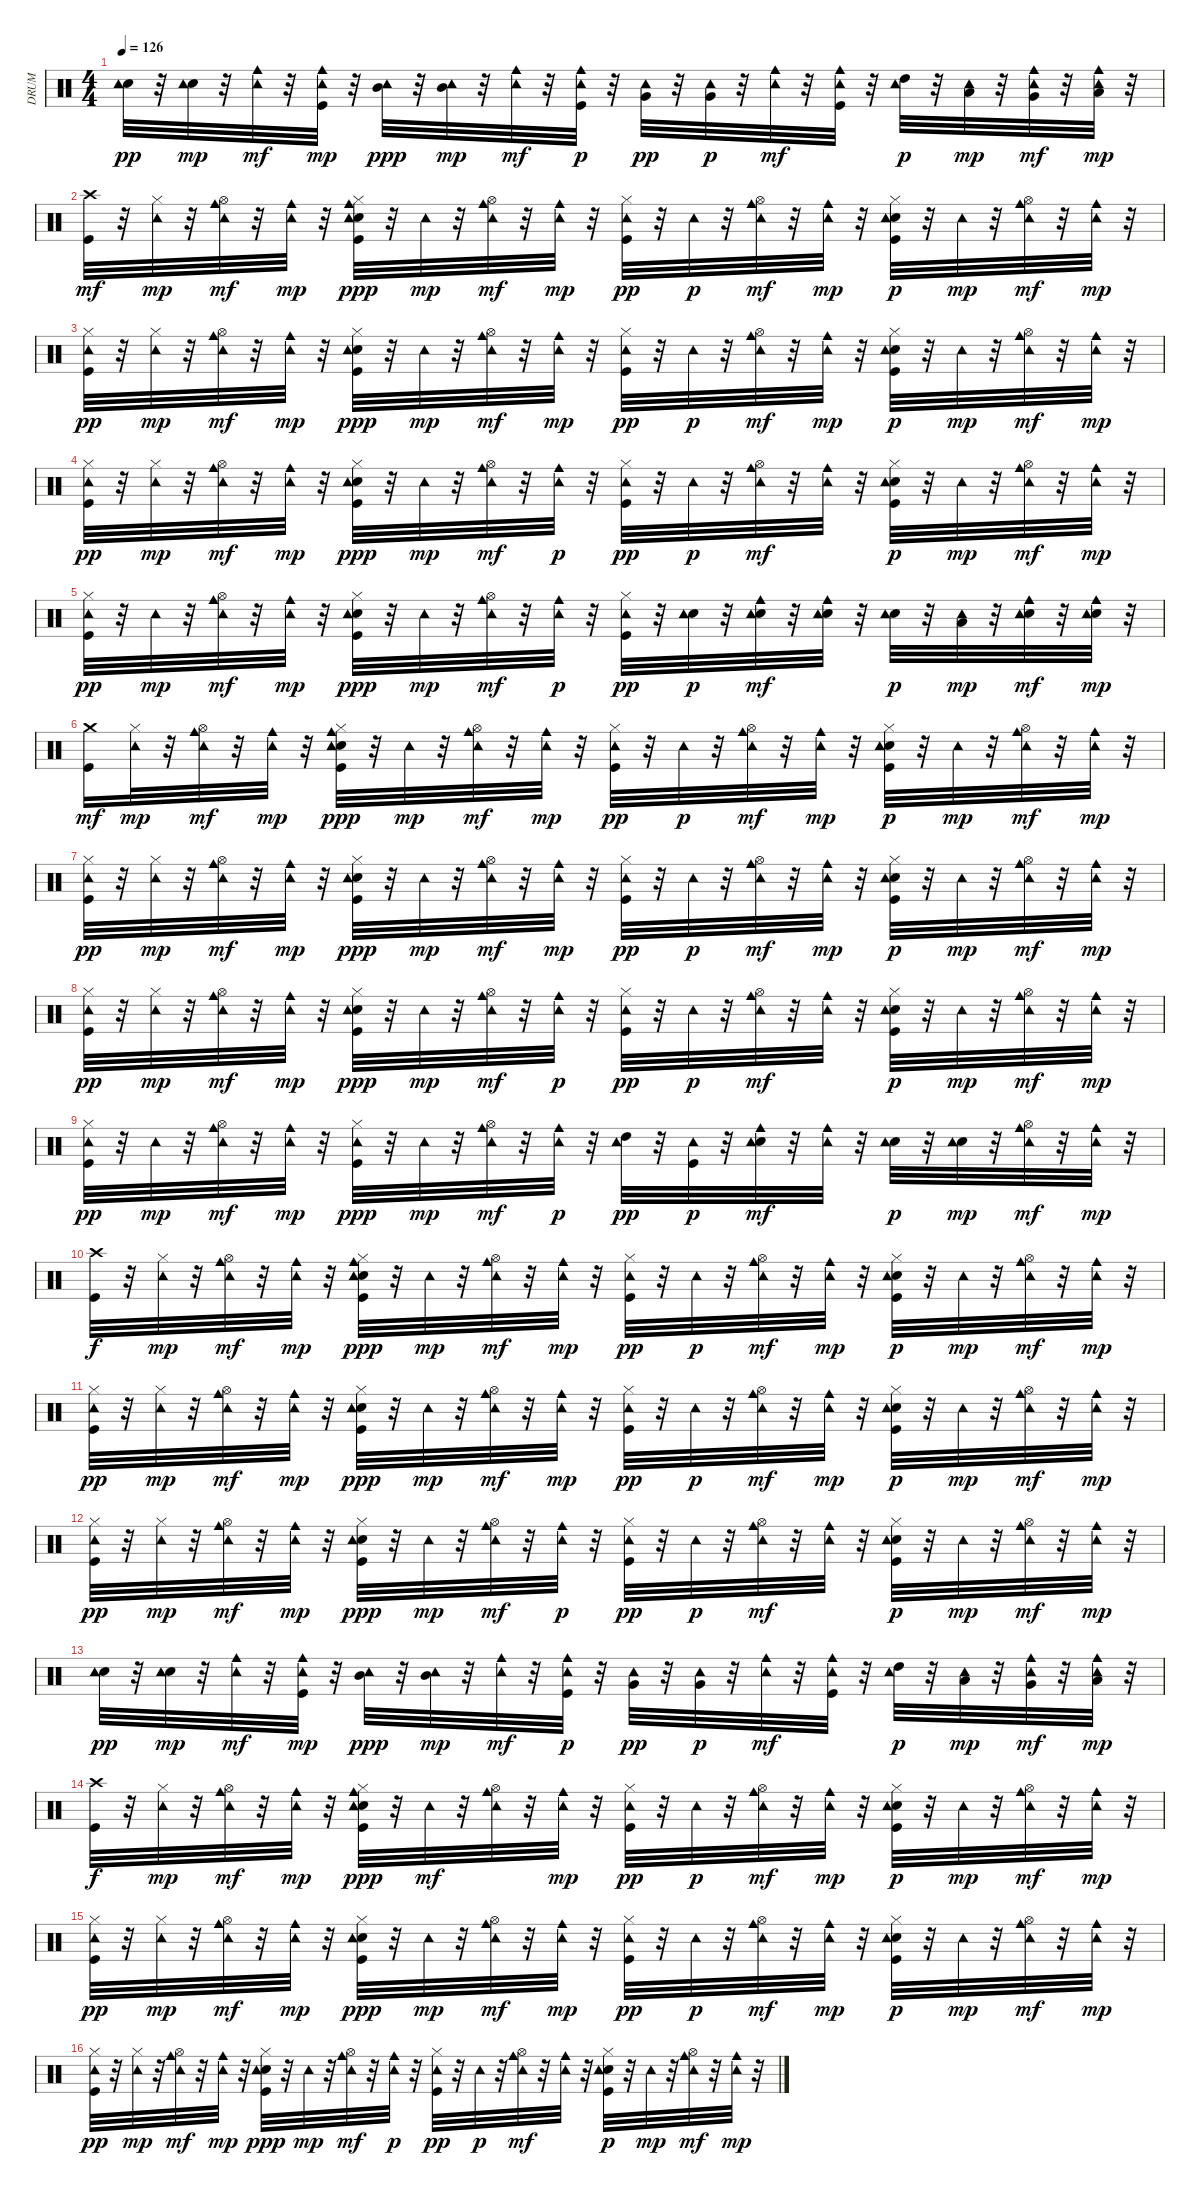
\track ("DRUM" "DRUM") {instrument percussion}
\staff {score}
\articulation defaults
\ts (4 4)
\tempo 126
\clef neutral
\ks c
("Electric Snare (hit)" "Tambourine (hit)").32{dy pp} r.32 ("Electric Snare (hit)" "Tambourine (hit)").32{dy mp} r.32 ("Tambourine (hit)" "Cowbell medium (hit)").32{dy mf} r.32 ("Kick (hit)" "Tambourine (hit)" "Cowbell medium (hit)").32{dy mp} r.32 ("Mid Tom (hit)" "Tambourine (hit)").32{dy ppp} r.32 ("Mid Tom (hit)" "Tambourine (hit)").32{dy mp} r.32 ("Tambourine (hit)" "Cowbell medium (hit)").32{dy mf} r.32 ("Kick (hit)" "Tambourine (hit)" "Cowbell medium (hit)").32{dy p} r.32 ("Very Low Tom (hit)" "Tambourine (hit)").32{dy pp} r.32 ("Very Low Tom (hit)" "Tambourine (hit)").32{dy p} r.32 ("Tambourine (hit)" "Cowbell medium (hit)").32{dy mf} r.32 ("Kick (hit)" "Tambourine (hit)" "Cowbell medium (hit)").32 r.32 ("High Tom (hit)" "Tambourine (hit)").32{dy p} r.32 ("Low Tom (hit)" "Tambourine (hit)").32{dy mp} r.32 ("Very Low Tom (hit)" "Tambourine (hit)" "Cowbell medium (hit)").32{dy mf} r.32 ("Low Floor Tom (hit)" "Tambourine (hit)" "Cowbell medium (hit)").32{dy mp} r.32 |
("Kick (hit)" "Crash high (hit)").32{dy mf} r.32 ("Hi-Hat (closed)" "Tambourine (hit)").32{dy mp} r.32 ("Hi-Hat (open)" "Tambourine (hit)" "Cowbell medium (hit)").32{dy mf} r.32 ("Tambourine (hit)" "Cowbell medium (hit)").32{dy mp} r.32 ("Kick (hit)" "Electric Snare (hit)" "Hi-Hat (closed)" "Tambourine (hit)" "Cowbell medium (hit)").32{dy ppp} r.32 "Tambourine (hit)".32{dy mp} r.32 ("Hi-Hat (open)" "Tambourine (hit)" "Cowbell medium (hit)").32{dy mf} r.32 ("Tambourine (hit)" "Cowbell medium (hit)").32{dy mp} r.32 ("Kick (hit)" "Hi-Hat (closed)" "Tambourine (hit)").32{dy pp} r.32 "Tambourine (hit)".32{dy p} r.32 ("Hi-Hat (open)" "Tambourine (hit)" "Cowbell medium (hit)").32{dy mf} r.32 ("Tambourine (hit)" "Cowbell medium (hit)").32{dy mp} r.32 ("Kick (hit)" "Electric Snare (hit)" "Hi-Hat (closed)" "Tambourine (hit)").32{dy p} r.32 "Tambourine (hit)".32{dy mp} r.32 ("Hi-Hat (open)" "Tambourine (hit)" "Cowbell medium (hit)").32{dy mf} r.32 ("Tambourine (hit)" "Cowbell medium (hit)").32{dy mp} r.32 |
("Kick (hit)" "Hi-Hat (closed)" "Tambourine (hit)").32{dy pp} r.32 ("Hi-Hat (closed)" "Tambourine (hit)").32{dy mp} r.32 ("Hi-Hat (open)" "Tambourine (hit)" "Cowbell medium (hit)").32{dy mf} r.32 ("Tambourine (hit)" "Cowbell medium (hit)").32{dy mp} r.32 ("Kick (hit)" "Electric Snare (hit)" "Hi-Hat (closed)" "Tambourine (hit)").32{dy ppp} r.32 "Tambourine (hit)".32{dy mp} r.32 ("Hi-Hat (open)" "Tambourine (hit)" "Cowbell medium (hit)").32{dy mf} r.32 ("Tambourine (hit)" "Cowbell medium (hit)").32{dy mp} r.32 ("Kick (hit)" "Hi-Hat (closed)" "Tambourine (hit)").32{dy pp} r.32 "Tambourine (hit)".32{dy p} r.32 ("Hi-Hat (open)" "Tambourine (hit)" "Cowbell medium (hit)").32{dy mf} r.32 ("Tambourine (hit)" "Cowbell medium (hit)").32{dy mp} r.32 ("Kick (hit)" "Electric Snare (hit)" "Hi-Hat (closed)" "Tambourine (hit)").32{dy p} r.32 "Tambourine (hit)".32{dy mp} r.32 ("Hi-Hat (open)" "Tambourine (hit)" "Cowbell medium (hit)").32{dy mf} r.32 ("Tambourine (hit)" "Cowbell medium (hit)").32{dy mp} r.32 |
("Kick (hit)" "Hi-Hat (closed)" "Tambourine (hit)").32{dy pp} r.32 ("Hi-Hat (closed)" "Tambourine (hit)").32{dy mp} r.32 ("Hi-Hat (open)" "Tambourine (hit)" "Cowbell medium (hit)").32{dy mf} r.32 ("Tambourine (hit)" "Cowbell medium (hit)").32{dy mp} r.32 ("Kick (hit)" "Electric Snare (hit)" "Hi-Hat (closed)" "Tambourine (hit)").32{dy ppp} r.32 "Tambourine (hit)".32{dy mp} r.32 ("Hi-Hat (open)" "Tambourine (hit)" "Cowbell medium (hit)").32{dy mf} r.32 ("Tambourine (hit)" "Cowbell medium (hit)").32{dy p} r.32 ("Kick (hit)" "Hi-Hat (closed)" "Tambourine (hit)").32{dy pp} r.32 "Tambourine (hit)".32{dy p} r.32 ("Hi-Hat (open)" "Tambourine (hit)" "Cowbell medium (hit)").32{dy mf} r.32 ("Tambourine (hit)" "Cowbell medium (hit)").32 r.32 ("Kick (hit)" "Electric Snare (hit)" "Hi-Hat (closed)" "Tambourine (hit)").32{dy p} r.32 "Tambourine (hit)".32{dy mp} r.32 ("Hi-Hat (open)" "Tambourine (hit)" "Cowbell medium (hit)").32{dy mf} r.32 ("Tambourine (hit)" "Cowbell medium (hit)").32{dy mp} r.32 |
("Kick (hit)" "Hi-Hat (closed)" "Tambourine (hit)").32{dy pp} r.32 "Tambourine (hit)".32{dy mp} r.32 ("Hi-Hat (open)" "Tambourine (hit)" "Cowbell medium (hit)").32{dy mf} r.32 ("Tambourine (hit)" "Cowbell medium (hit)").32{dy mp} r.32 ("Kick (hit)" "Electric Snare (hit)" "Hi-Hat (closed)" "Tambourine (hit)").32{dy ppp} r.32 "Tambourine (hit)".32{dy mp} r.32 ("Hi-Hat (open)" "Tambourine (hit)" "Cowbell medium (hit)").32{dy mf} r.32 ("Tambourine (hit)" "Cowbell medium (hit)").32{dy p} r.32 ("Kick (hit)" "Hi-Hat (closed)" "Tambourine (hit)").32{dy pp} r.32 ("Electric Snare (hit)" "Tambourine (hit)").32{dy p} r.32 ("Electric Snare (hit)" "Tambourine (hit)" "Cowbell medium (hit)").32{dy mf} r.32 ("Electric Snare (hit)" "Tambourine (hit)" "Cowbell medium (hit)").32 r.32 ("Electric Snare (hit)" "Tambourine (hit)").32{dy p} r.32 ("Low Tom (hit)" "Tambourine (hit)").32{dy mp} r.32 ("Electric Snare (hit)" "Tambourine (hit)" "Cowbell medium (hit)").32{dy mf} r.32 ("Electric Snare (hit)" "Tambourine (hit)" "Cowbell medium (hit)").32{dy mp} r.32 |
("Kick (hit)" "Crash medium (hit)").16{dy mf} ("Hi-Hat (closed)" "Tambourine (hit)").32{dy mp} r.32 ("Hi-Hat (open)" "Tambourine (hit)" "Cowbell medium (hit)").32{dy mf} r.32 ("Tambourine (hit)" "Cowbell medium (hit)").32{dy mp} r.32 ("Kick (hit)" "Electric Snare (hit)" "Hi-Hat (closed)" "Tambourine (hit)" "Cowbell medium (hit)").32{dy ppp} r.32 "Tambourine (hit)".32{dy mp} r.32 ("Hi-Hat (open)" "Tambourine (hit)" "Cowbell medium (hit)").32{dy mf} r.32 ("Tambourine (hit)" "Cowbell medium (hit)").32{dy mp} r.32 ("Kick (hit)" "Hi-Hat (closed)" "Tambourine (hit)").32{dy pp} r.32 "Tambourine (hit)".32{dy p} r.32 ("Hi-Hat (open)" "Tambourine (hit)" "Cowbell medium (hit)").32{dy mf} r.32 ("Tambourine (hit)" "Cowbell medium (hit)").32{dy mp} r.32 ("Kick (hit)" "Electric Snare (hit)" "Hi-Hat (closed)" "Tambourine (hit)").32{dy p} r.32 "Tambourine (hit)".32{dy mp} r.32 ("Hi-Hat (open)" "Tambourine (hit)" "Cowbell medium (hit)").32{dy mf} r.32 ("Tambourine (hit)" "Cowbell medium (hit)").32{dy mp} r.32 |
("Kick (hit)" "Hi-Hat (closed)" "Tambourine (hit)").32{dy pp} r.32 ("Hi-Hat (closed)" "Tambourine (hit)").32{dy mp} r.32 ("Hi-Hat (open)" "Tambourine (hit)" "Cowbell medium (hit)").32{dy mf} r.32 ("Tambourine (hit)" "Cowbell medium (hit)").32{dy mp} r.32 ("Kick (hit)" "Electric Snare (hit)" "Hi-Hat (closed)" "Tambourine (hit)").32{dy ppp} r.32 "Tambourine (hit)".32{dy mp} r.32 ("Hi-Hat (open)" "Tambourine (hit)" "Cowbell medium (hit)").32{dy mf} r.32 ("Tambourine (hit)" "Cowbell medium (hit)").32{dy mp} r.32 ("Kick (hit)" "Hi-Hat (closed)" "Tambourine (hit)").32{dy pp} r.32 "Tambourine (hit)".32{dy p} r.32 ("Hi-Hat (open)" "Tambourine (hit)" "Cowbell medium (hit)").32{dy mf} r.32 ("Tambourine (hit)" "Cowbell medium (hit)").32{dy mp} r.32 ("Kick (hit)" "Electric Snare (hit)" "Hi-Hat (closed)" "Tambourine (hit)").32{dy p} r.32 "Tambourine (hit)".32{dy mp} r.32 ("Hi-Hat (open)" "Tambourine (hit)" "Cowbell medium (hit)").32{dy mf} r.32 ("Tambourine (hit)" "Cowbell medium (hit)").32{dy mp} r.32 |
("Kick (hit)" "Hi-Hat (closed)" "Tambourine (hit)").32{dy pp} r.32 ("Hi-Hat (closed)" "Tambourine (hit)").32{dy mp} r.32 ("Hi-Hat (open)" "Tambourine (hit)" "Cowbell medium (hit)").32{dy mf} r.32 ("Tambourine (hit)" "Cowbell medium (hit)").32{dy mp} r.32 ("Kick (hit)" "Electric Snare (hit)" "Hi-Hat (closed)" "Tambourine (hit)").32{dy ppp} r.32 "Tambourine (hit)".32{dy mp} r.32 ("Hi-Hat (open)" "Tambourine (hit)" "Cowbell medium (hit)").32{dy mf} r.32 ("Tambourine (hit)" "Cowbell medium (hit)").32{dy p} r.32 ("Kick (hit)" "Hi-Hat (closed)" "Tambourine (hit)").32{dy pp} r.32 "Tambourine (hit)".32{dy p} r.32 ("Hi-Hat (open)" "Tambourine (hit)" "Cowbell medium (hit)").32{dy mf} r.32 ("Tambourine (hit)" "Cowbell medium (hit)").32 r.32 ("Kick (hit)" "Electric Snare (hit)" "Hi-Hat (closed)" "Tambourine (hit)").32{dy p} r.32 "Tambourine (hit)".32{dy mp} r.32 ("Hi-Hat (open)" "Tambourine (hit)" "Cowbell medium (hit)").32{dy mf} r.32 ("Tambourine (hit)" "Cowbell medium (hit)").32{dy mp} r.32 |
("Kick (hit)" "Hi-Hat (closed)" "Tambourine (hit)").32{dy pp} r.32 "Tambourine (hit)".32{dy mp} r.32 ("Hi-Hat (open)" "Tambourine (hit)" "Cowbell medium (hit)").32{dy mf} r.32 ("Tambourine (hit)" "Cowbell medium (hit)").32{dy mp} r.32 ("Kick (hit)" "Hi-Hat (closed)" "Tambourine (hit)").32{dy ppp} r.32 "Tambourine (hit)".32{dy mp} r.32 ("Hi-Hat (open)" "Tambourine (hit)" "Cowbell medium (hit)").32{dy mf} r.32 ("Tambourine (hit)" "Cowbell medium (hit)").32{dy p} r.32 ("High Tom (hit)" "Tambourine (hit)").32{dy pp} r.32 ("Kick (hit)" "Tambourine (hit)").32{dy p} r.32 ("Electric Snare (hit)" "Tambourine (hit)" "Cowbell medium (hit)").32{dy mf} r.32 ("Tambourine (hit)" "Cowbell medium (hit)").32 r.32 ("Electric Snare (hit)" "Tambourine (hit)").32{dy p} r.32 ("Electric Snare (hit)" "Tambourine (hit)").32{dy mp} r.32 ("Hi-Hat (open)" "Tambourine (hit)" "Cowbell medium (hit)").32{dy mf} r.32 ("Tambourine (hit)" "Cowbell medium (hit)").32{dy mp} r.32 |
("Kick (hit)" "Crash high (hit)").32{dy f} r.32 ("Hi-Hat (closed)" "Tambourine (hit)").32{dy mp} r.32 ("Hi-Hat (open)" "Tambourine (hit)" "Cowbell medium (hit)").32{dy mf} r.32 ("Tambourine (hit)" "Cowbell medium (hit)").32{dy mp} r.32 ("Kick (hit)" "Electric Snare (hit)" "Hi-Hat (closed)" "Tambourine (hit)" "Cowbell medium (hit)").32{dy ppp} r.32 "Tambourine (hit)".32{dy mp} r.32 ("Hi-Hat (open)" "Tambourine (hit)" "Cowbell medium (hit)").32{dy mf} r.32 ("Tambourine (hit)" "Cowbell medium (hit)").32{dy mp} r.32 ("Kick (hit)" "Hi-Hat (closed)" "Tambourine (hit)").32{dy pp} r.32 "Tambourine (hit)".32{dy p} r.32 ("Hi-Hat (open)" "Tambourine (hit)" "Cowbell medium (hit)").32{dy mf} r.32 ("Tambourine (hit)" "Cowbell medium (hit)").32{dy mp} r.32 ("Kick (hit)" "Electric Snare (hit)" "Hi-Hat (closed)" "Tambourine (hit)").32{dy p} r.32 "Tambourine (hit)".32{dy mp} r.32 ("Hi-Hat (open)" "Tambourine (hit)" "Cowbell medium (hit)").32{dy mf} r.32 ("Tambourine (hit)" "Cowbell medium (hit)").32{dy mp} r.32 |
("Kick (hit)" "Hi-Hat (closed)" "Tambourine (hit)").32{dy pp} r.32 ("Hi-Hat (closed)" "Tambourine (hit)").32{dy mp} r.32 ("Hi-Hat (open)" "Tambourine (hit)" "Cowbell medium (hit)").32{dy mf} r.32 ("Tambourine (hit)" "Cowbell medium (hit)").32{dy mp} r.32 ("Kick (hit)" "Electric Snare (hit)" "Hi-Hat (closed)" "Tambourine (hit)").32{dy ppp} r.32 "Tambourine (hit)".32{dy mp} r.32 ("Hi-Hat (open)" "Tambourine (hit)" "Cowbell medium (hit)").32{dy mf} r.32 ("Tambourine (hit)" "Cowbell medium (hit)").32{dy mp} r.32 ("Kick (hit)" "Hi-Hat (closed)" "Tambourine (hit)").32{dy pp} r.32 "Tambourine (hit)".32{dy p} r.32 ("Hi-Hat (open)" "Tambourine (hit)" "Cowbell medium (hit)").32{dy mf} r.32 ("Tambourine (hit)" "Cowbell medium (hit)").32{dy mp} r.32 ("Kick (hit)" "Electric Snare (hit)" "Hi-Hat (closed)" "Tambourine (hit)").32{dy p} r.32 "Tambourine (hit)".32{dy mp} r.32 ("Hi-Hat (open)" "Tambourine (hit)" "Cowbell medium (hit)").32{dy mf} r.32 ("Tambourine (hit)" "Cowbell medium (hit)").32{dy mp} r.32 |
("Kick (hit)" "Hi-Hat (closed)" "Tambourine (hit)").32{dy pp} r.32 ("Hi-Hat (closed)" "Tambourine (hit)").32{dy mp} r.32 ("Hi-Hat (open)" "Tambourine (hit)" "Cowbell medium (hit)").32{dy mf} r.32 ("Tambourine (hit)" "Cowbell medium (hit)").32{dy mp} r.32 ("Kick (hit)" "Electric Snare (hit)" "Hi-Hat (closed)" "Tambourine (hit)").32{dy ppp} r.32 "Tambourine (hit)".32{dy mp} r.32 ("Hi-Hat (open)" "Tambourine (hit)" "Cowbell medium (hit)").32{dy mf} r.32 ("Tambourine (hit)" "Cowbell medium (hit)").32{dy p} r.32 ("Kick (hit)" "Hi-Hat (closed)" "Tambourine (hit)").32{dy pp} r.32 "Tambourine (hit)".32{dy p} r.32 ("Hi-Hat (open)" "Tambourine (hit)" "Cowbell medium (hit)").32{dy mf} r.32 ("Tambourine (hit)" "Cowbell medium (hit)").32 r.32 ("Kick (hit)" "Electric Snare (hit)" "Hi-Hat (closed)" "Tambourine (hit)").32{dy p} r.32 "Tambourine (hit)".32{dy mp} r.32 ("Hi-Hat (open)" "Tambourine (hit)" "Cowbell medium (hit)").32{dy mf} r.32 ("Tambourine (hit)" "Cowbell medium (hit)").32{dy mp} r.32 |
("Electric Snare (hit)" "Tambourine (hit)").32{dy pp} r.32 ("Electric Snare (hit)" "Tambourine (hit)").32{dy mp} r.32 ("Tambourine (hit)" "Cowbell medium (hit)").32{dy mf} r.32 ("Kick (hit)" "Tambourine (hit)" "Cowbell medium (hit)").32{dy mp} r.32 ("Mid Tom (hit)" "Tambourine (hit)").32{dy ppp} r.32 ("Mid Tom (hit)" "Tambourine (hit)").32{dy mp} r.32 ("Tambourine (hit)" "Cowbell medium (hit)").32{dy mf} r.32 ("Kick (hit)" "Tambourine (hit)" "Cowbell medium (hit)").32{dy p} r.32 ("Very Low Tom (hit)" "Tambourine (hit)").32{dy pp} r.32 ("Very Low Tom (hit)" "Tambourine (hit)").32{dy p} r.32 ("Tambourine (hit)" "Cowbell medium (hit)").32{dy mf} r.32 ("Kick (hit)" "Tambourine (hit)" "Cowbell medium (hit)").32 r.32 ("High Tom (hit)" "Tambourine (hit)").32{dy p} r.32 ("Low Tom (hit)" "Tambourine (hit)").32{dy mp} r.32 ("Very Low Tom (hit)" "Tambourine (hit)" "Cowbell medium (hit)").32{dy mf} r.32 ("Low Floor Tom (hit)" "Tambourine (hit)" "Cowbell medium (hit)").32{dy mp} r.32 |
("Kick (hit)" "Crash high (hit)").32{dy f} r.32 ("Hi-Hat (closed)" "Tambourine (hit)").32{dy mp} r.32 ("Hi-Hat (open)" "Tambourine (hit)" "Cowbell medium (hit)").32{dy mf} r.32 ("Tambourine (hit)" "Cowbell medium (hit)").32{dy mp} r.32 ("Kick (hit)" "Electric Snare (hit)" "Hi-Hat (closed)" "Tambourine (hit)" "Cowbell medium (hit)").32{dy ppp} r.32 "Tambourine (hit)".32{dy mf} r.32 ("Hi-Hat (open)" "Tambourine (hit)" "Cowbell medium (hit)").32 r.32 ("Tambourine (hit)" "Cowbell medium (hit)").32{dy mp} r.32 ("Kick (hit)" "Hi-Hat (closed)" "Tambourine (hit)").32{dy pp} r.32 "Tambourine (hit)".32{dy p} r.32 ("Hi-Hat (open)" "Tambourine (hit)" "Cowbell medium (hit)").32{dy mf} r.32 ("Tambourine (hit)" "Cowbell medium (hit)").32{dy mp} r.32 ("Kick (hit)" "Electric Snare (hit)" "Hi-Hat (closed)" "Tambourine (hit)").32{dy p} r.32 "Tambourine (hit)".32{dy mp} r.32 ("Hi-Hat (open)" "Tambourine (hit)" "Cowbell medium (hit)").32{dy mf} r.32 ("Tambourine (hit)" "Cowbell medium (hit)").32{dy mp} r.32 |
("Kick (hit)" "Hi-Hat (closed)" "Tambourine (hit)").32{dy pp} r.32 ("Hi-Hat (closed)" "Tambourine (hit)").32{dy mp} r.32 ("Hi-Hat (open)" "Tambourine (hit)" "Cowbell medium (hit)").32{dy mf} r.32 ("Tambourine (hit)" "Cowbell medium (hit)").32{dy mp} r.32 ("Kick (hit)" "Electric Snare (hit)" "Hi-Hat (closed)" "Tambourine (hit)").32{dy ppp} r.32 "Tambourine (hit)".32{dy mp} r.32 ("Hi-Hat (open)" "Tambourine (hit)" "Cowbell medium (hit)").32{dy mf} r.32 ("Tambourine (hit)" "Cowbell medium (hit)").32{dy mp} r.32 ("Kick (hit)" "Hi-Hat (closed)" "Tambourine (hit)").32{dy pp} r.32 "Tambourine (hit)".32{dy p} r.32 ("Hi-Hat (open)" "Tambourine (hit)" "Cowbell medium (hit)").32{dy mf} r.32 ("Tambourine (hit)" "Cowbell medium (hit)").32{dy mp} r.32 ("Kick (hit)" "Electric Snare (hit)" "Hi-Hat (closed)" "Tambourine (hit)").32{dy p} r.32 "Tambourine (hit)".32{dy mp} r.32 ("Hi-Hat (open)" "Tambourine (hit)" "Cowbell medium (hit)").32{dy mf} r.32 ("Tambourine (hit)" "Cowbell medium (hit)").32{dy mp} r.32 |
("Kick (hit)" "Hi-Hat (closed)" "Tambourine (hit)").32{dy pp} r.32 ("Hi-Hat (closed)" "Tambourine (hit)").32{dy mp} r.32 ("Hi-Hat (open)" "Tambourine (hit)" "Cowbell medium (hit)").32{dy mf} r.32 ("Tambourine (hit)" "Cowbell medium (hit)").32{dy mp} r.32 ("Kick (hit)" "Electric Snare (hit)" "Hi-Hat (closed)" "Tambourine (hit)").32{dy ppp} r.32 "Tambourine (hit)".32{dy mp} r.32 ("Hi-Hat (open)" "Tambourine (hit)" "Cowbell medium (hit)").32{dy mf} r.32 ("Tambourine (hit)" "Cowbell medium (hit)").32{dy p} r.32 ("Kick (hit)" "Hi-Hat (closed)" "Tambourine (hit)").32{dy pp} r.32 "Tambourine (hit)".32{dy p} r.32 ("Hi-Hat (open)" "Tambourine (hit)" "Cowbell medium (hit)").32{dy mf} r.32 ("Tambourine (hit)" "Cowbell medium (hit)").32 r.32 ("Kick (hit)" "Electric Snare (hit)" "Hi-Hat (closed)" "Tambourine (hit)").32{dy p} r.32 "Tambourine (hit)".32{dy mp} r.32 ("Hi-Hat (open)" "Tambourine (hit)" "Cowbell medium (hit)").32{dy mf} r.32 ("Tambourine (hit)" "Cowbell medium (hit)").32{dy mp} r.32
